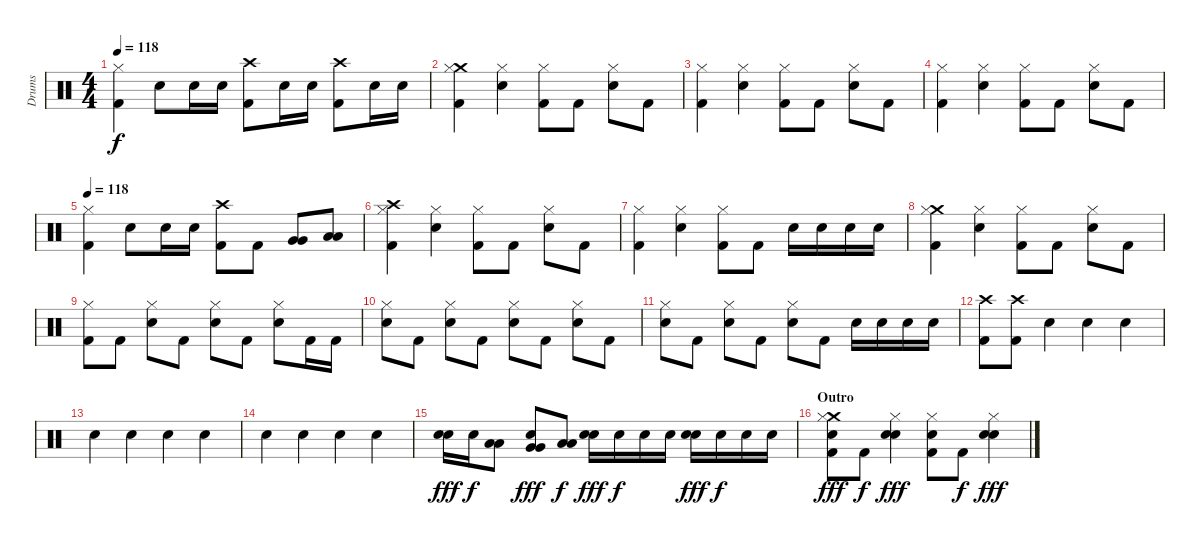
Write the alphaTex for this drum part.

\track ("Drums" "Drums") {instrument percussion}
\staff {score}
\articulation defaults
\ts (4 4)
\tempo 118
\clef neutral
\ks c
("Hi-Hat (closed)" "Kick (hit) 2").4{dy f} "Snare (hit) 2".8 "Snare (hit) 2".16 "Snare (hit) 2".16 ("Crash high (hit)" "Kick (hit) 2").8 "Snare (hit) 2".16 "Snare (hit) 2".16 ("Crash high (hit)" "Kick (hit) 2").8 "Snare (hit) 2".16 "Snare (hit) 2".16 |
("Crash medium (hit)" "Hi-Hat (closed)" "Kick (hit) 2").4 ("Hi-Hat (closed)" "Snare (hit) 2").4 ("Hi-Hat (closed)" "Kick (hit) 2").8 "Kick (hit) 2".8 ("Hi-Hat (closed)" "Snare (hit) 2").8 "Kick (hit) 2".8 |
("Hi-Hat (closed)" "Kick (hit) 2").4 ("Hi-Hat (closed)" "Snare (hit) 2").4 ("Hi-Hat (closed)" "Kick (hit) 2").8 "Kick (hit) 2".8 ("Hi-Hat (closed)" "Snare (hit) 2").8 "Kick (hit) 2".8 |
("Hi-Hat (closed)" "Kick (hit) 2").4 ("Hi-Hat (closed)" "Snare (hit) 2").4 ("Hi-Hat (closed)" "Kick (hit) 2").8 "Kick (hit) 2".8 ("Hi-Hat (closed)" "Snare (hit) 2").8 "Kick (hit) 2".8 |
\tempo 118
("Hi-Hat (closed)" "Kick (hit) 2").4 "Snare (hit) 2".8 "Snare (hit) 2".16 "Snare (hit) 2".16 ("Crash high (hit)" "Kick (hit) 2").8 "Kick (hit) 2".8 ("Very Low Tom (hit)" "Very Low Tom (hit)").8 ("Low Floor Tom (hit)" "Low Floor Tom (hit)").8 |
("Crash high (hit)" "Hi-Hat (closed)" "Kick (hit) 2").4 ("Hi-Hat (closed)" "Snare (hit) 2").4 ("Hi-Hat (closed)" "Kick (hit) 2").8 "Kick (hit) 2".8 ("Hi-Hat (closed)" "Snare (hit) 2").8 "Kick (hit) 2".8 |
("Hi-Hat (closed)" "Kick (hit) 2").4 ("Hi-Hat (closed)" "Snare (hit) 2").4 ("Hi-Hat (closed)" "Kick (hit) 2").8 "Kick (hit) 2".8 "Snare (hit) 2".16 "Snare (hit) 2".16 "Snare (hit) 2".16 "Snare (hit) 2".16 |
("Crash medium (hit)" "Hi-Hat (closed)" "Kick (hit) 2").4 ("Hi-Hat (closed)" "Snare (hit) 2").4 ("Hi-Hat (closed)" "Kick (hit) 2").8 "Kick (hit) 2".8 ("Hi-Hat (closed)" "Snare (hit) 2").8 "Kick (hit) 2".8 |
("Hi-Hat (closed)" "Kick (hit) 2").8 "Kick (hit) 2".8 ("Hi-Hat (closed)" "Snare (hit) 2").8 "Kick (hit) 2".8 ("Hi-Hat (closed)" "Snare (hit) 2").8 "Kick (hit) 2".8 ("Hi-Hat (closed)" "Snare (hit) 2").8 "Kick (hit) 2".16 "Kick (hit) 2".16 |
("Hi-Hat (closed)" "Snare (hit) 2").8 "Kick (hit) 2".8 ("Hi-Hat (closed)" "Snare (hit) 2").8 "Kick (hit) 2".8 ("Hi-Hat (closed)" "Snare (hit) 2").8 "Kick (hit) 2".8 ("Hi-Hat (closed)" "Snare (hit) 2").8 "Kick (hit) 2".8 |
("Hi-Hat (closed)" "Snare (hit) 2").8 "Kick (hit) 2".8 ("Hi-Hat (closed)" "Snare (hit) 2").8 "Kick (hit) 2".8 ("Hi-Hat (closed)" "Snare (hit) 2").8 "Kick (hit) 2".8 "Snare (hit) 2".16 "Snare (hit) 2".16 "Snare (hit) 2".16 "Snare (hit) 2".16 |
("Crash high (hit)" "Kick (hit) 2").8 ("Crash high (hit)" "Kick (hit) 2").8 "Hand Clap (hit)".4 "Hand Clap (hit)".4 "Hand Clap (hit)".4 |
"Hand Clap (hit)".4 "Hand Clap (hit)".4 "Hand Clap (hit)".4 "Hand Clap (hit)".4 |
"Hand Clap (hit)".4 "Hand Clap (hit)".4 "Hand Clap (hit)".4 "Hand Clap (hit)".4 |
("Hand Clap (hit)" "Snare (hit) 2").16{dy fff} "Snare (hit) 2".16{dy f} ("Low Tom (hit)" "Low Tom (hit)").8 ("Hand Clap (hit)" "Very Low Tom (hit)" "Very Low Tom (hit)").8{dy fff} ("Low Floor Tom (hit)" "Low Floor Tom (hit)").8{dy f} ("Hand Clap (hit)" "Snare (hit) 2").16{dy fff} "Snare (hit) 2".16{dy f} "Snare (hit) 2".16 "Snare (hit) 2".16 ("Hand Clap (hit)" "Snare (hit) 2").16{dy fff} "Snare (hit) 2".16{dy f} "Snare (hit) 2".16 "Snare (hit) 2".16 |
\section ("" "Outro")
("Crash medium (hit)" "Hand Clap (hit)" "Hi-Hat (closed)" "Kick (hit) 2").8{dy fff} "Kick (hit) 2".8{dy f} ("Hand Clap (hit)" "Hi-Hat (closed)" "Snare (hit) 2").4{dy fff} ("Hand Clap (hit)" "Hi-Hat (closed)" "Kick (hit) 2").8 "Kick (hit) 2".8{dy f} ("Hand Clap (hit)" "Hi-Hat (closed)" "Snare (hit) 2").4{dy fff}
